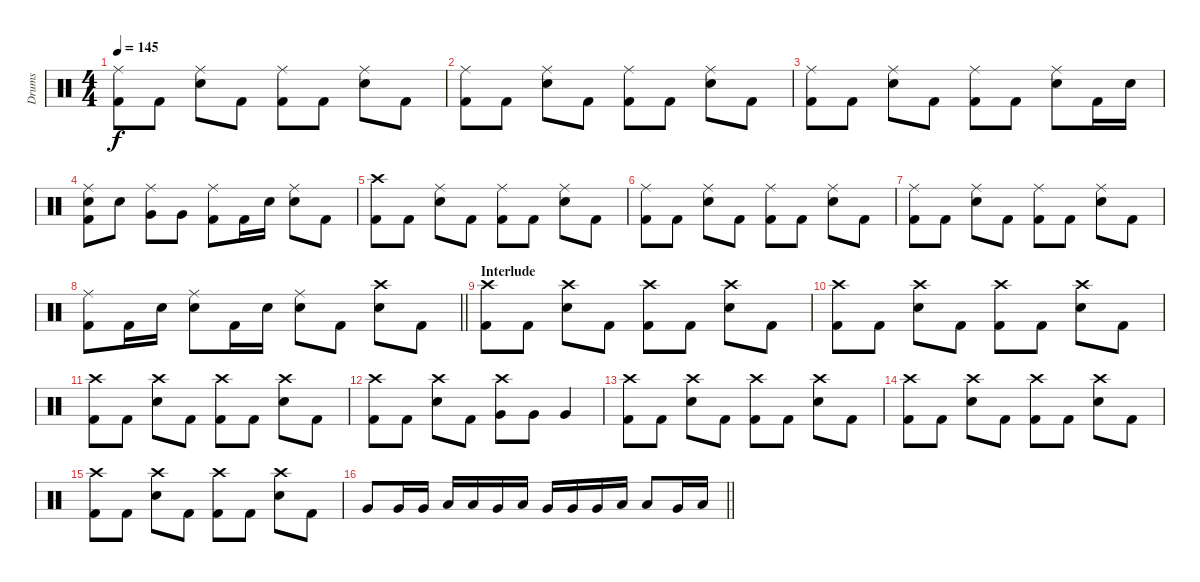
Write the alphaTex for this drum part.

\track ("Drums" "Drums") {instrument percussion}
\staff {score}
\articulation defaults
\ts (4 4)
\tempo 145
\clef neutral
\ks c
("Ride (middle)" "Kick (hit) 2").8{dy f} "Kick (hit) 2".8 ("Ride (middle)" "Snare (hit) 2").8 "Kick (hit) 2".8 ("Ride (middle)" "Kick (hit) 2").8 "Kick (hit) 2".8 ("Ride (middle)" "Snare (hit) 2").8 "Kick (hit) 2".8 |
("Ride (middle)" "Kick (hit) 2").8 "Kick (hit) 2".8 ("Ride (middle)" "Snare (hit) 2").8 "Kick (hit) 2".8 ("Ride (middle)" "Kick (hit) 2").8 "Kick (hit) 2".8 ("Ride (middle)" "Snare (hit) 2").8 "Kick (hit) 2".8 |
("Ride (middle)" "Kick (hit) 2").8 "Kick (hit) 2".8 ("Ride (middle)" "Snare (hit) 2").8 "Kick (hit) 2".8 ("Ride (middle)" "Kick (hit) 2").8 "Kick (hit) 2".8 ("Ride (middle)" "Snare (hit) 2").8 "Kick (hit) 2".16 "Snare (hit) 2".16 |
("Ride (middle)" "Snare (hit) 2" "Kick (hit) 2").8 "Snare (hit) 2".8 ("Ride (middle)" "Very Low Tom (hit)").8 "Very Low Tom (hit)".8 ("Ride (middle)" "Kick (hit) 2").8 "Kick (hit) 2".16 "Snare (hit) 2".16 ("Ride (middle)" "Snare (hit) 2").8 "Kick (hit) 2".8 |
("Crash high (hit)" "Kick (hit) 2").8 "Kick (hit) 2".8 ("Ride (middle)" "Snare (hit) 2").8 "Kick (hit) 2".8 ("Ride (middle)" "Kick (hit) 2").8 "Kick (hit) 2".8 ("Ride (middle)" "Snare (hit) 2").8 "Kick (hit) 2".8 |
("Ride (middle)" "Kick (hit) 2").8 "Kick (hit) 2".8 ("Ride (middle)" "Snare (hit) 2").8 "Kick (hit) 2".8 ("Ride (middle)" "Kick (hit) 2").8 "Kick (hit) 2".8 ("Ride (middle)" "Snare (hit) 2").8 "Kick (hit) 2".8 |
("Ride (middle)" "Kick (hit) 2").8 "Kick (hit) 2".8 ("Ride (middle)" "Snare (hit) 2").8 "Kick (hit) 2".8 ("Ride (middle)" "Kick (hit) 2").8 "Kick (hit) 2".8 ("Ride (middle)" "Snare (hit) 2").8 "Kick (hit) 2".8 |
\barLineRight lightlight
("Ride (middle)" "Kick (hit) 2").8 "Kick (hit) 2".16 "Snare (hit) 2".16 ("Ride (middle)" "Snare (hit) 2").8 "Kick (hit) 2".16 "Snare (hit) 2".16 ("Ride (middle)" "Snare (hit) 2").8 "Kick (hit) 2".8 ("Crash high (hit)" "Snare (hit) 2").8 "Kick (hit) 2".8 |
\section ("" "Interlude")
("Crash high (hit)" "Kick (hit) 2").8 "Kick (hit) 2".8 ("Crash high (hit)" "Snare (hit) 2").8 "Kick (hit) 2".8 ("Crash high (hit)" "Kick (hit) 2").8 "Kick (hit) 2".8 ("Crash high (hit)" "Snare (hit) 2").8 "Kick (hit) 2".8 |
("Crash high (hit)" "Kick (hit) 2").8 "Kick (hit) 2".8 ("Crash high (hit)" "Snare (hit) 2").8 "Kick (hit) 2".8 ("Crash high (hit)" "Kick (hit) 2").8 "Kick (hit) 2".8 ("Crash high (hit)" "Snare (hit) 2").8 "Kick (hit) 2".8 |
("Crash high (hit)" "Kick (hit) 2").8 "Kick (hit) 2".8 ("Crash high (hit)" "Snare (hit) 2").8 "Kick (hit) 2".8 ("Crash high (hit)" "Kick (hit) 2").8 "Kick (hit) 2".8 ("Crash high (hit)" "Snare (hit) 2").8 "Kick (hit) 2".8 |
("Crash high (hit)" "Kick (hit) 2").8 "Kick (hit) 2".8 ("Crash high (hit)" "Snare (hit) 2").8 "Kick (hit) 2".8 ("Crash high (hit)" "Very Low Tom (hit)").8 "Very Low Tom (hit)".8 "Very Low Tom (hit)".4 |
("Crash high (hit)" "Kick (hit) 2").8 "Kick (hit) 2".8 ("Crash high (hit)" "Snare (hit) 2").8 "Kick (hit) 2".8 ("Crash high (hit)" "Kick (hit) 2").8 "Kick (hit) 2".8 ("Crash high (hit)" "Snare (hit) 2").8 "Kick (hit) 2".8 |
("Crash high (hit)" "Kick (hit) 2").8 "Kick (hit) 2".8 ("Crash high (hit)" "Snare (hit) 2").8 "Kick (hit) 2".8 ("Crash high (hit)" "Kick (hit) 2").8 "Kick (hit) 2".8 ("Crash high (hit)" "Snare (hit) 2").8 "Kick (hit) 2".8 |
("Crash high (hit)" "Kick (hit) 2").8 "Kick (hit) 2".8 ("Crash high (hit)" "Snare (hit) 2").8 "Kick (hit) 2".8 ("Crash high (hit)" "Kick (hit) 2").8 "Kick (hit) 2".8 ("Crash high (hit)" "Snare (hit) 2").8 "Kick (hit) 2".8 |
\barLineRight lightlight "Very Low Tom (hit)".8 "Very Low Tom (hit)".16 "Very Low Tom (hit)".16 "Low Tom (hit)".16 "Low Tom (hit)".16 "Very Low Tom (hit)".16 "Low Tom (hit)".16 "Very Low Tom (hit)".16 "Very Low Tom (hit)".16 "Very Low Tom (hit)".16 "Low Tom (hit)".16 "Low Tom (hit)".8 "Very Low Tom (hit)".16 "Low Tom (hit)".16
